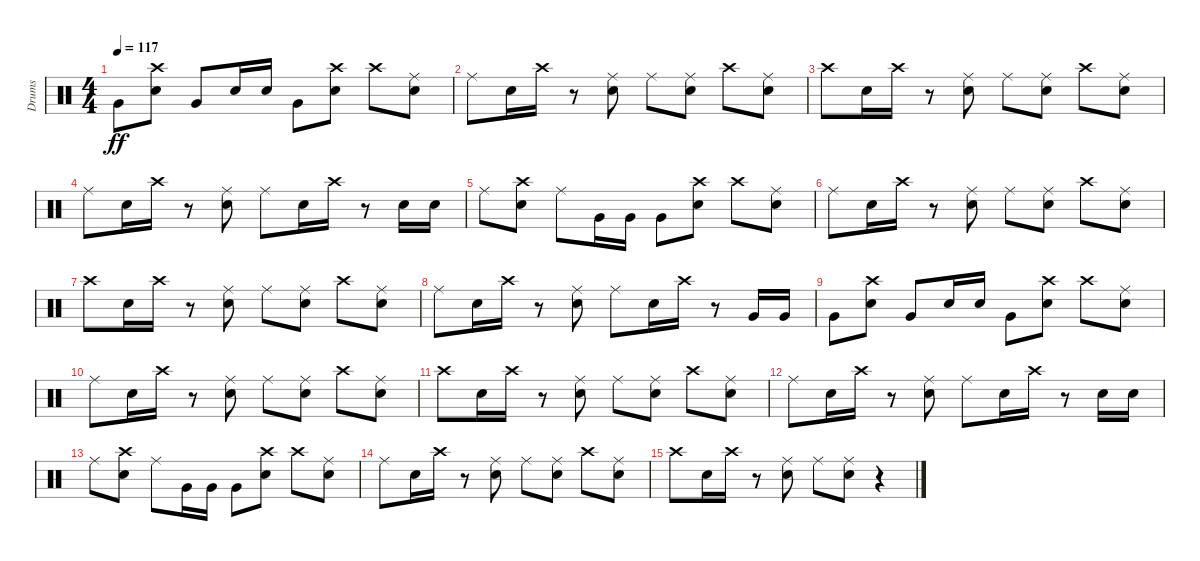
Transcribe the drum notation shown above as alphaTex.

\track ("Drums" "Drums") {instrument percussion}
\staff {score}
\articulation defaults
\ts (4 4)
\tempo 117
\clef neutral
\ks c "Very Low Tom (hit)".8{dy ff}
("Snare (hit) 2" "Crash high (hit)").8 "Very Low Tom (hit)".8 "Snare (hit) 2".16 "Snare (hit) 2".16 "Very Low Tom (hit)".8 ("Snare (hit) 2" "Crash high (hit)").8 "Crash high (hit)".8 ("Snare (hit) 2" "Ride (middle)").8 |
"Ride (middle)".8 "Snare (hit) 2".16 "Crash high (hit)".16 r.8 ("Snare (hit) 2" "Ride (middle)").8 "Ride (middle)".8 ("Snare (hit) 2" "Ride (middle)").8 "Crash high (hit)".8 ("Snare (hit) 2" "Ride (middle)").8 |
"Crash high (hit)".8 "Snare (hit) 2".16 "Crash high (hit)".16 r.8 ("Snare (hit) 2" "Ride (middle)").8 "Ride (middle)".8 ("Snare (hit) 2" "Ride (middle)").8 "Crash high (hit)".8 ("Snare (hit) 2" "Ride (middle)").8 |
"Ride (middle)".8 "Snare (hit) 2".16 "Crash high (hit)".16 r.8 ("Snare (hit) 2" "Ride (middle)").8 "Ride (middle)".8 "Snare (hit) 2".16 "Crash high (hit)".16 r.8 "Snare (hit) 2".16 "Snare (hit) 2".16 |
"Ride (middle)".8 ("Snare (hit) 2" "Crash high (hit)").8 "Ride (middle)".8 "Very Low Tom (hit)".16 "Very Low Tom (hit)".16 "Very Low Tom (hit)".8 ("Snare (hit) 2" "Crash high (hit)").8 "Crash high (hit)".8 ("Snare (hit) 2" "Ride (middle)").8 |
"Ride (middle)".8 "Snare (hit) 2".16 "Crash high (hit)".16 r.8 ("Snare (hit) 2" "Ride (middle)").8 "Ride (middle)".8 ("Snare (hit) 2" "Ride (middle)").8 "Crash high (hit)".8 ("Snare (hit) 2" "Ride (middle)").8 |
"Crash high (hit)".8 "Snare (hit) 2".16 "Crash high (hit)".16 r.8 ("Snare (hit) 2" "Ride (middle)").8 "Ride (middle)".8 ("Snare (hit) 2" "Ride (middle)").8 "Crash high (hit)".8 ("Snare (hit) 2" "Ride (middle)").8 |
"Ride (middle)".8 "Snare (hit) 2".16 "Crash high (hit)".16 r.8 ("Snare (hit) 2" "Ride (middle)").8 "Ride (middle)".8 "Snare (hit) 2".16 "Crash high (hit)".16 r.8 "Very Low Tom (hit)".16 "Very Low Tom (hit)".16 |
"Very Low Tom (hit)".8 ("Snare (hit) 2" "Crash high (hit)").8 "Very Low Tom (hit)".8 "Snare (hit) 2".16 "Snare (hit) 2".16 "Very Low Tom (hit)".8 ("Snare (hit) 2" "Crash high (hit)").8 "Crash high (hit)".8 ("Snare (hit) 2" "Ride (middle)").8 |
"Ride (middle)".8{volume 15} "Snare (hit) 2".16{volume 14} "Crash high (hit)".16{volume 14} r.8 ("Snare (hit) 2" "Ride (middle)").8{volume 14} "Ride (middle)".8{volume 13} ("Snare (hit) 2" "Ride (middle)").8{volume 13} "Crash high (hit)".8{volume 13} ("Snare (hit) 2" "Ride (middle)").8{volume 12} |
"Crash high (hit)".8{volume 12} "Snare (hit) 2".16{volume 12} "Crash high (hit)".16{volume 12} r.8 ("Snare (hit) 2" "Ride (middle)").8{volume 11} "Ride (middle)".8{volume 11} ("Snare (hit) 2" "Ride (middle)").8{volume 10} "Crash high (hit)".8{volume 10} ("Snare (hit) 2" "Ride (middle)").8{volume 10} |
"Ride (middle)".8{volume 10} "Snare (hit) 2".16{volume 9} "Crash high (hit)".16{volume 9} r.8 ("Snare (hit) 2" "Ride (middle)").8{volume 9} "Ride (middle)".8{volume 8} "Snare (hit) 2".16{volume 8} "Crash high (hit)".16{volume 8} r.8 "Snare (hit) 2".16{volume 7} "Snare (hit) 2".16{volume 7} |
"Ride (middle)".8{volume 7} ("Snare (hit) 2" "Crash high (hit)").8{volume 7} "Ride (middle)".8{volume 6} "Very Low Tom (hit)".16{volume 6} "Very Low Tom (hit)".16{volume 6} "Very Low Tom (hit)".8{volume 6} ("Snare (hit) 2" "Crash high (hit)").8{volume 6} "Crash high (hit)".8{volume 5} ("Snare (hit) 2" "Ride (middle)").8{volume 5} |
"Ride (middle)".8{volume 4} "Snare (hit) 2".16{volume 4} "Crash high (hit)".16{volume 4} r.8 ("Snare (hit) 2" "Ride (middle)").8{volume 4} "Ride (middle)".8{volume 3} ("Snare (hit) 2" "Ride (middle)").8{volume 3} "Crash high (hit)".8{volume 3} ("Snare (hit) 2" "Ride (middle)").8{volume 2} |
"Crash high (hit)".8{volume 2} "Snare (hit) 2".16{volume 2} "Crash high (hit)".16{volume 2} r.8 ("Snare (hit) 2" "Ride (middle)").8{volume 1} "Ride (middle)".8{volume 1} ("Snare (hit) 2" "Ride (middle)").8{volume 0} r.4
